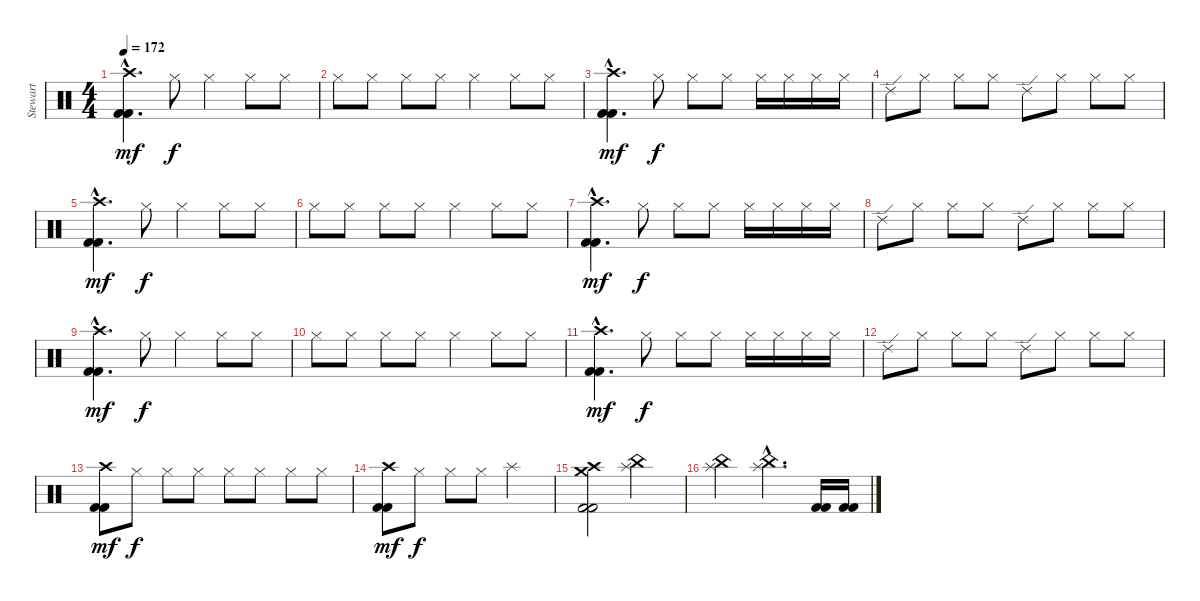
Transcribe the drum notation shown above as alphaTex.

\track ("Stewart" "Stewart") {instrument percussion}
\staff {score}
\articulation defaults
\ts (4 4)
\tempo 172
\clef neutral
\ks c
("Crash high (hit)"{hac} "Kick (hit) 2"{hac} "Kick (hit) 2"{hac}).4{d dy mf} "Hi-Hat (closed)".8{dy f} "Hi-Hat (closed)".4 "Hi-Hat (closed)".8 "Hi-Hat (closed)".8 |
"Hi-Hat (closed)".8 "Hi-Hat (closed)".8 "Hi-Hat (closed)".8 "Hi-Hat (closed)".8 "Hi-Hat (closed)".4 "Hi-Hat (closed)".8 "Hi-Hat (closed)".8 |
("Crash high (hit)"{hac} "Kick (hit) 2"{hac} "Kick (hit) 2"{hac}).4{d dy mf} "Hi-Hat (closed)".8{dy f} "Hi-Hat (closed)".8 "Hi-Hat (closed)".8 "Hi-Hat (closed)".16 "Hi-Hat (closed)".16 "Hi-Hat (closed)".16 "Hi-Hat (closed)".16 |
"Ride (edge) 2".8 "Hi-Hat (closed)".8 "Hi-Hat (closed)".8 "Hi-Hat (closed)".8 "Ride (edge) 2".8 "Hi-Hat (closed)".8 "Hi-Hat (closed)".8 "Hi-Hat (closed)".8 |
("Crash high (hit)"{hac} "Kick (hit) 2"{hac} "Kick (hit) 2"{hac}).4{d dy mf} "Hi-Hat (closed)".8{dy f} "Hi-Hat (closed)".4 "Hi-Hat (closed)".8 "Hi-Hat (closed)".8 |
"Hi-Hat (closed)".8 "Hi-Hat (closed)".8 "Hi-Hat (closed)".8 "Hi-Hat (closed)".8 "Hi-Hat (closed)".4 "Hi-Hat (closed)".8 "Hi-Hat (closed)".8 |
("Crash high (hit)"{hac} "Kick (hit) 2"{hac} "Kick (hit) 2"{hac}).4{d dy mf} "Hi-Hat (closed)".8{dy f} "Hi-Hat (closed)".8 "Hi-Hat (closed)".8 "Hi-Hat (closed)".16 "Hi-Hat (closed)".16 "Hi-Hat (closed)".16 "Hi-Hat (closed)".16 |
"Ride (edge) 2".8 "Hi-Hat (closed)".8 "Hi-Hat (closed)".8 "Hi-Hat (closed)".8 "Ride (edge) 2".8 "Hi-Hat (closed)".8 "Hi-Hat (closed)".8 "Hi-Hat (closed)".8 |
("Crash high (hit)"{hac} "Kick (hit) 2"{hac} "Kick (hit) 2"{hac}).4{d dy mf} "Hi-Hat (closed)".8{dy f} "Hi-Hat (closed)".4 "Hi-Hat (closed)".8 "Hi-Hat (closed)".8 |
"Hi-Hat (closed)".8 "Hi-Hat (closed)".8 "Hi-Hat (closed)".8 "Hi-Hat (closed)".8 "Hi-Hat (closed)".4 "Hi-Hat (closed)".8 "Hi-Hat (closed)".8 |
("Crash high (hit)"{hac} "Kick (hit) 2"{hac} "Kick (hit) 2"{hac}).4{d dy mf} "Hi-Hat (closed)".8{dy f} "Hi-Hat (closed)".8 "Hi-Hat (closed)".8 "Hi-Hat (closed)".16 "Hi-Hat (closed)".16 "Hi-Hat (closed)".16 "Hi-Hat (closed)".16 |
"Ride (edge) 2".8 "Hi-Hat (closed)".8 "Hi-Hat (closed)".8 "Hi-Hat (closed)".8 "Ride (edge) 2".8 "Hi-Hat (closed)".8 "Hi-Hat (closed)".8 "Hi-Hat (closed)".8 |
("Crash high (hit)" "Kick (hit) 2" "Kick (hit) 2").8{dy mf} "Hi-Hat (closed)".8{dy f} "Hi-Hat (closed)".8 "Hi-Hat (closed)".8 "Hi-Hat (closed)".8 "Hi-Hat (closed)".8 "Hi-Hat (closed)".8 "Hi-Hat (closed)".8 |
("Crash high (hit)" "Kick (hit) 2" "Kick (hit) 2").8{dy mf} "Hi-Hat (closed)".8{dy f} "Hi-Hat (closed)".8 "Hi-Hat (closed)".8 "Splash (hit)".2 |
("Crash high (hit)" "Crash medium (hit)" "Kick (hit) 2" "Kick (hit) 2").2 ("China (hit)" "Splash (hit)").2 |
("China (hit)" "Splash (hit)").2 ("China (hit)"{hac} "Splash (hit)"{hac}).4{d} ("Kick (hit) 2" "Kick (hit) 2").16 ("Kick (hit) 2" "Kick (hit) 2").16
